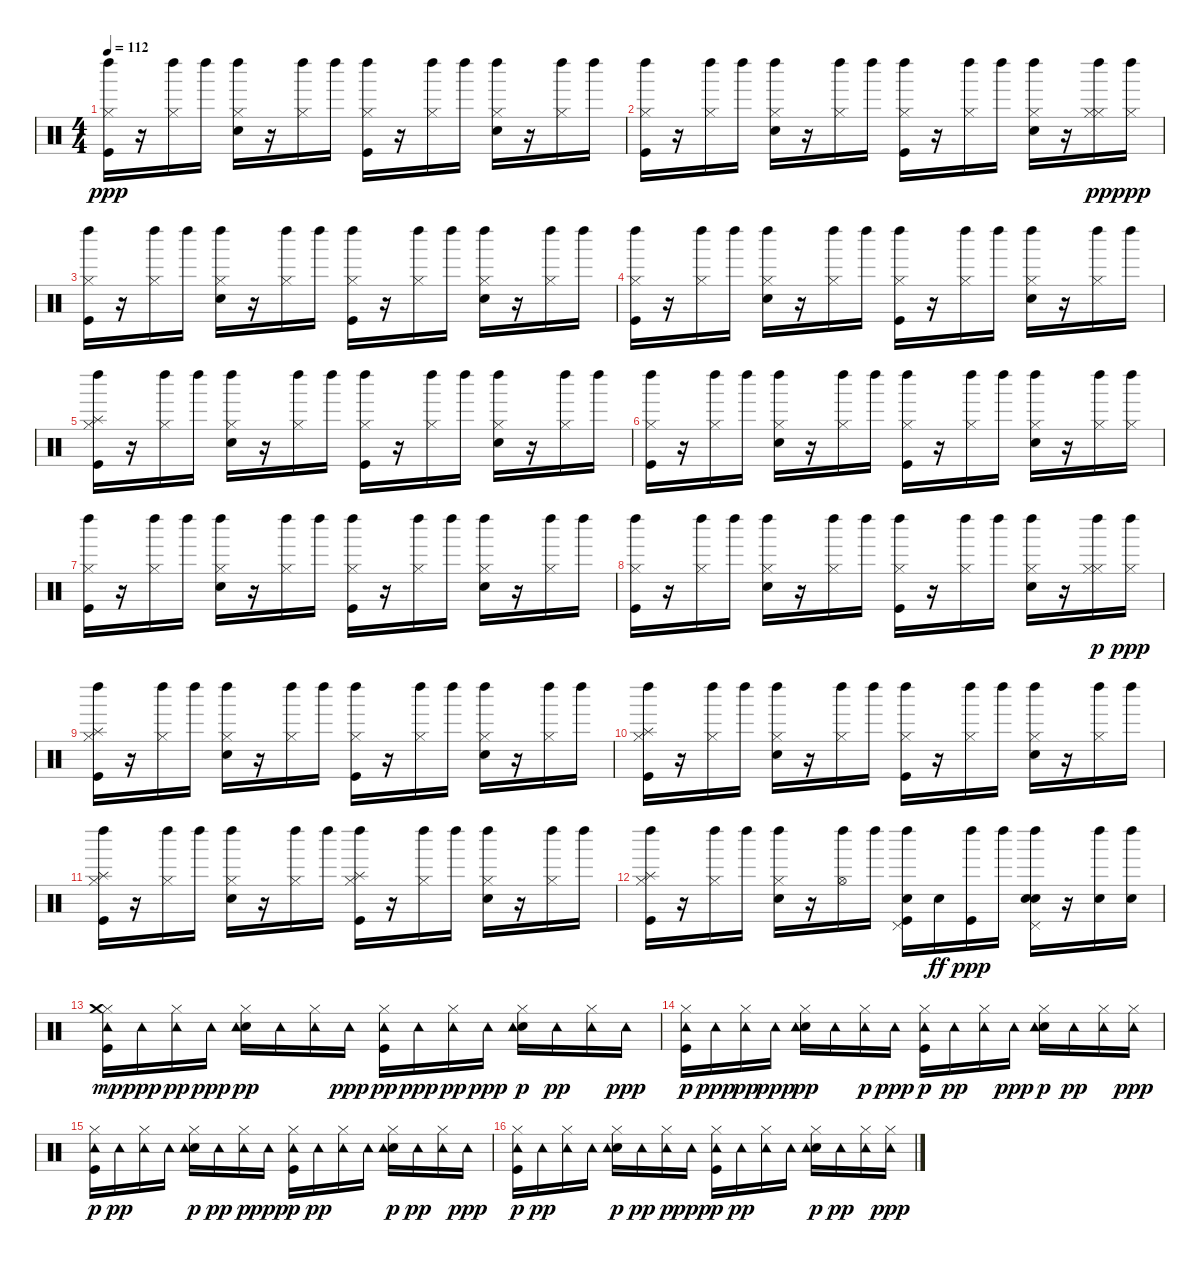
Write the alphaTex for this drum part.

\track "" {instrument percussion}
\staff {score}
\articulation defaults
\ts (4 4)
\tempo 112
\clef neutral
\ks c
("Kick (hit)" "Hi-Hat (closed)" "Left Maraca (hit)").16{dy ppp} r.16 ("Hi-Hat (closed)" "Left Maraca (hit)").16 "Left Maraca (hit)".16 ("Electric Snare (hit)" "Hi-Hat (closed)" "Left Maraca (hit)").16 r.16 ("Hi-Hat (closed)" "Left Maraca (hit)").16 "Left Maraca (hit)".16 ("Kick (hit)" "Hi-Hat (closed)" "Left Maraca (hit)").16 r.16 ("Hi-Hat (closed)" "Left Maraca (hit)").16 "Left Maraca (hit)".16 ("Electric Snare (hit)" "Hi-Hat (closed)" "Left Maraca (hit)").16 r.16 ("Hi-Hat (closed)" "Left Maraca (hit)").16 "Left Maraca (hit)".16 |
("Kick (hit)" "Hi-Hat (closed)" "Left Maraca (hit)").16 r.16 ("Hi-Hat (closed)" "Left Maraca (hit)").16 "Left Maraca (hit)".16 ("Electric Snare (hit)" "Hi-Hat (closed)" "Left Maraca (hit)").16 r.16 ("Hi-Hat (closed)" "Left Maraca (hit)").16 "Left Maraca (hit)".16 ("Kick (hit)" "Hi-Hat (closed)" "Left Maraca (hit)").16 r.16 ("Hi-Hat (closed)" "Left Maraca (hit)").16 "Left Maraca (hit)".16 ("Electric Snare (hit)" "Hi-Hat (closed)" "Left Maraca (hit)").16 r.16 ("Hi-Hat (closed)" "Left Maraca (hit)" "Hi-Hat (closed)").16{dy pp} ("Hi-Hat (closed)" "Left Maraca (hit)").16{dy ppp} |
("Kick (hit)" "Hi-Hat (closed)" "Left Maraca (hit)").16 r.16 ("Hi-Hat (closed)" "Left Maraca (hit)").16 "Left Maraca (hit)".16 ("Electric Snare (hit)" "Hi-Hat (closed)" "Left Maraca (hit)").16 r.16 ("Hi-Hat (closed)" "Left Maraca (hit)").16 "Left Maraca (hit)".16 ("Kick (hit)" "Hi-Hat (closed)" "Left Maraca (hit)").16 r.16 ("Hi-Hat (closed)" "Left Maraca (hit)").16 "Left Maraca (hit)".16 ("Electric Snare (hit)" "Hi-Hat (closed)" "Left Maraca (hit)").16 r.16 ("Hi-Hat (closed)" "Left Maraca (hit)").16 "Left Maraca (hit)".16 |
("Kick (hit)" "Hi-Hat (closed)" "Left Maraca (hit)").16 r.16 ("Hi-Hat (closed)" "Left Maraca (hit)").16 "Left Maraca (hit)".16 ("Electric Snare (hit)" "Hi-Hat (closed)" "Left Maraca (hit)").16 r.16 ("Hi-Hat (closed)" "Left Maraca (hit)").16 "Left Maraca (hit)".16 ("Kick (hit)" "Hi-Hat (closed)" "Left Maraca (hit)").16 r.16 ("Hi-Hat (closed)" "Left Maraca (hit)").16 "Left Maraca (hit)".16 ("Electric Snare (hit)" "Hi-Hat (closed)" "Left Maraca (hit)").16 r.16 ("Hi-Hat (closed)" "Left Maraca (hit)").16 "Left Maraca (hit)".16 |
("Kick (hit)" "Hi-Hat (closed)" "Splash (hit)" "Left Maraca (hit)").16 r.16 ("Hi-Hat (closed)" "Left Maraca (hit)").16 "Left Maraca (hit)".16 ("Electric Snare (hit)" "Hi-Hat (closed)" "Left Maraca (hit)").16 r.16 ("Hi-Hat (closed)" "Left Maraca (hit)").16 "Left Maraca (hit)".16 ("Kick (hit)" "Hi-Hat (closed)" "Left Maraca (hit)").16 r.16 ("Hi-Hat (closed)" "Left Maraca (hit)").16 "Left Maraca (hit)".16 ("Electric Snare (hit)" "Hi-Hat (closed)" "Left Maraca (hit)").16 r.16 ("Hi-Hat (closed)" "Left Maraca (hit)").16 "Left Maraca (hit)".16 |
("Kick (hit)" "Hi-Hat (closed)" "Left Maraca (hit)").16 r.16 ("Hi-Hat (closed)" "Left Maraca (hit)").16 "Left Maraca (hit)".16 ("Electric Snare (hit)" "Hi-Hat (closed)" "Left Maraca (hit)").16 r.16 ("Hi-Hat (closed)" "Left Maraca (hit)").16 "Left Maraca (hit)".16 ("Kick (hit)" "Hi-Hat (closed)" "Left Maraca (hit)").16 r.16 ("Hi-Hat (closed)" "Left Maraca (hit)").16 "Left Maraca (hit)".16 ("Electric Snare (hit)" "Hi-Hat (closed)" "Left Maraca (hit)").16 r.16 ("Hi-Hat (closed)" "Left Maraca (hit)").16 ("Hi-Hat (closed)" "Left Maraca (hit)").16 |
("Kick (hit)" "Hi-Hat (closed)" "Left Maraca (hit)").16 r.16 ("Hi-Hat (closed)" "Left Maraca (hit)").16 "Left Maraca (hit)".16 ("Electric Snare (hit)" "Hi-Hat (closed)" "Left Maraca (hit)").16 r.16 ("Hi-Hat (closed)" "Left Maraca (hit)").16 "Left Maraca (hit)".16 ("Kick (hit)" "Hi-Hat (closed)" "Left Maraca (hit)").16 r.16 ("Hi-Hat (closed)" "Left Maraca (hit)").16 "Left Maraca (hit)".16 ("Electric Snare (hit)" "Hi-Hat (closed)" "Left Maraca (hit)").16 r.16 ("Hi-Hat (closed)" "Left Maraca (hit)").16 "Left Maraca (hit)".16 |
("Kick (hit)" "Hi-Hat (closed)" "Left Maraca (hit)").16 r.16 ("Hi-Hat (closed)" "Left Maraca (hit)").16 "Left Maraca (hit)".16 ("Electric Snare (hit)" "Hi-Hat (closed)" "Left Maraca (hit)").16 r.16 ("Hi-Hat (closed)" "Left Maraca (hit)").16 "Left Maraca (hit)".16 ("Kick (hit)" "Hi-Hat (closed)" "Left Maraca (hit)").16 r.16 ("Hi-Hat (closed)" "Left Maraca (hit)").16 "Left Maraca (hit)".16 ("Electric Snare (hit)" "Hi-Hat (closed)" "Left Maraca (hit)").16 r.16 ("Hi-Hat (closed)" "Left Maraca (hit)" "Hi-Hat (closed)").16{dy p} ("Hi-Hat (closed)" "Left Maraca (hit)").16{dy ppp} |
("Kick (hit)" "Hi-Hat (closed)" "Splash (hit)" "Left Maraca (hit)").16 r.16 ("Hi-Hat (closed)" "Left Maraca (hit)").16 "Left Maraca (hit)".16 ("Electric Snare (hit)" "Hi-Hat (closed)" "Left Maraca (hit)").16 r.16 ("Hi-Hat (closed)" "Left Maraca (hit)").16 "Left Maraca (hit)".16 ("Kick (hit)" "Hi-Hat (closed)" "Left Maraca (hit)").16 r.16 ("Hi-Hat (closed)" "Left Maraca (hit)").16 "Left Maraca (hit)".16 ("Electric Snare (hit)" "Hi-Hat (closed)" "Left Maraca (hit)").16 r.16 ("Hi-Hat (closed)" "Left Maraca (hit)").16 "Left Maraca (hit)".16 |
("Kick (hit)" "Hi-Hat (closed)" "Splash (hit)" "Left Maraca (hit)").16 r.16 ("Hi-Hat (closed)" "Left Maraca (hit)").16 "Left Maraca (hit)".16 ("Electric Snare (hit)" "Hi-Hat (closed)" "Left Maraca (hit)").16 r.16 ("Hi-Hat (closed)" "Left Maraca (hit)").16 "Left Maraca (hit)".16 ("Kick (hit)" "Hi-Hat (closed)" "Left Maraca (hit)").16 r.16 ("Hi-Hat (closed)" "Left Maraca (hit)").16 "Left Maraca (hit)".16 ("Electric Snare (hit)" "Hi-Hat (closed)" "Left Maraca (hit)").16 r.16 ("Hi-Hat (closed)" "Left Maraca (hit)").16 "Left Maraca (hit)".16 |
("Kick (hit)" "Hi-Hat (closed)" "Splash (hit)" "Left Maraca (hit)").16 r.16 ("Hi-Hat (closed)" "Left Maraca (hit)").16 "Left Maraca (hit)".16 ("Electric Snare (hit)" "Hi-Hat (closed)" "Left Maraca (hit)").16 r.16 ("Hi-Hat (closed)" "Left Maraca (hit)").16 "Left Maraca (hit)".16 ("Kick (hit)" "Hi-Hat (closed)" "Splash (hit)" "Left Maraca (hit)").16 r.16 ("Hi-Hat (closed)" "Left Maraca (hit)").16 "Left Maraca (hit)".16 ("Electric Snare (hit)" "Hi-Hat (closed)" "Left Maraca (hit)").16 r.16 ("Hi-Hat (closed)" "Left Maraca (hit)").16 "Left Maraca (hit)".16 |
("Kick (hit)" "Hi-Hat (closed)" "Splash (hit)" "Left Maraca (hit)").16 r.16 ("Hi-Hat (closed)" "Left Maraca (hit)").16 "Left Maraca (hit)".16 ("Electric Snare (hit)" "Hi-Hat (closed)" "Left Maraca (hit)").16 r.16 ("Hi-Hat (open)" "Left Maraca (hit)").16 "Left Maraca (hit)".16 ("Kick (hit)" "Electric Snare (hit)" "Pedal Hi-Hat (hit)" "Left Maraca (hit)").16 "Electric Snare (hit)".16{dy ff} ("Kick (hit)" "Left Maraca (hit)").16{dy ppp} "Left Maraca (hit)".16 ("Electric Snare (hit)" "Electric Snare (hit)" "Pedal Hi-Hat (hit)" "Left Maraca (hit)").16 r.16 ("Electric Snare (hit)" "Left Maraca (hit)").16 ("Electric Snare (hit)" "Left Maraca (hit)").16 |
("Kick (hit)" "Hi-Hat (closed)" "Tambourine (hit)" "Crash medium (hit)").16{dy mp} "Tambourine (hit)".16{dy ppp} ("Hi-Hat (closed)" "Tambourine (hit)").16{dy pp} "Tambourine (hit)".16{dy ppp} ("Electric Snare (hit)" "Hi-Hat (closed)" "Tambourine (hit)").16{dy pp} "Tambourine (hit)".16 ("Hi-Hat (closed)" "Tambourine (hit)").16 "Tambourine (hit)".16{dy ppp} ("Kick (hit)" "Hi-Hat (closed)" "Tambourine (hit)").16{dy pp} "Tambourine (hit)".16{dy ppp} ("Hi-Hat (closed)" "Tambourine (hit)").16{dy pp} "Tambourine (hit)".16{dy ppp} ("Electric Snare (hit)" "Hi-Hat (closed)" "Tambourine (hit)").16{dy p} "Tambourine (hit)".16{dy pp} ("Hi-Hat (closed)" "Tambourine (hit)").16 "Tambourine (hit)".16{dy ppp} |
("Kick (hit)" "Hi-Hat (closed)" "Tambourine (hit)").16{dy p} "Tambourine (hit)".16{dy ppp} ("Hi-Hat (closed)" "Tambourine (hit)").16{dy pp} "Tambourine (hit)".16{dy ppp} ("Electric Snare (hit)" "Hi-Hat (closed)" "Tambourine (hit)").16{dy pp} "Tambourine (hit)".16 ("Hi-Hat (closed)" "Tambourine (hit)").16{dy p} "Tambourine (hit)".16{dy ppp} ("Kick (hit)" "Hi-Hat (closed)" "Tambourine (hit)").16{dy p} "Tambourine (hit)".16{dy pp} ("Hi-Hat (closed)" "Tambourine (hit)").16 "Tambourine (hit)".16{dy ppp} ("Electric Snare (hit)" "Hi-Hat (closed)" "Tambourine (hit)").16{dy p} "Tambourine (hit)".16{dy pp} ("Hi-Hat (closed)" "Tambourine (hit)").16 ("Hi-Hat (closed)" "Tambourine (hit)").16{dy ppp} |
("Kick (hit)" "Hi-Hat (closed)" "Tambourine (hit)").16{dy p} "Tambourine (hit)".16{dy pp} ("Hi-Hat (closed)" "Tambourine (hit)").16 "Tambourine (hit)".16 ("Electric Snare (hit)" "Hi-Hat (closed)" "Tambourine (hit)").16{dy p} "Tambourine (hit)".16{dy pp} ("Hi-Hat (closed)" "Tambourine (hit)").16{dy p} "Tambourine (hit)".16{dy ppp} ("Kick (hit)" "Hi-Hat (closed)" "Tambourine (hit)").16{dy p} "Tambourine (hit)".16{dy pp} ("Hi-Hat (closed)" "Tambourine (hit)").16 "Tambourine (hit)".16 ("Electric Snare (hit)" "Hi-Hat (closed)" "Tambourine (hit)").16{dy p} "Tambourine (hit)".16{dy pp} ("Hi-Hat (closed)" "Tambourine (hit)").16 "Tambourine (hit)".16{dy ppp} |
("Kick (hit)" "Hi-Hat (closed)" "Tambourine (hit)").16{dy p} "Tambourine (hit)".16{dy pp} ("Hi-Hat (closed)" "Tambourine (hit)").16 "Tambourine (hit)".16 ("Electric Snare (hit)" "Hi-Hat (closed)" "Tambourine (hit)").16{dy p} "Tambourine (hit)".16{dy pp} ("Hi-Hat (closed)" "Tambourine (hit)").16{dy p} "Tambourine (hit)".16{dy ppp} ("Kick (hit)" "Hi-Hat (closed)" "Tambourine (hit)").16{dy p} "Tambourine (hit)".16{dy pp} ("Hi-Hat (closed)" "Tambourine (hit)").16 "Tambourine (hit)".16 ("Electric Snare (hit)" "Hi-Hat (closed)" "Tambourine (hit)").16{dy p} "Tambourine (hit)".16{dy pp} ("Hi-Hat (closed)" "Tambourine (hit)").16 ("Hi-Hat (closed)" "Tambourine (hit)").16{dy ppp}
